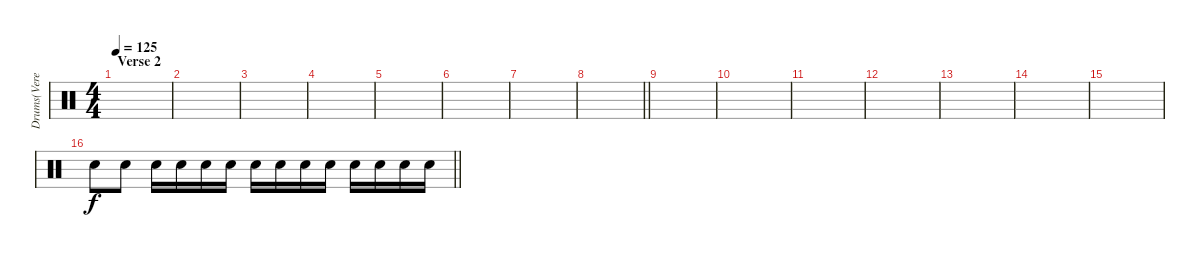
\track ("Drums(Vereinfacht) - Daniel" "Drums(Vere") {instrument percussion}
\staff {score}
\articulation defaults
\ts (4 4)
\section ("" "Verse 2")
\tempo 125
\clef neutral
\ks c
|
|
|
|
|
|
|
\barLineRight lightlight
|
|
|
|
|
|
|
|
\barLineRight lightlight "Snare (hit) 2".8 "Snare (hit) 2".8 "Snare (hit) 2".16 "Snare (hit) 2".16 "Snare (hit) 2".16 "Snare (hit) 2".16 "Snare (hit) 2".16 "Snare (hit) 2".16 "Snare (hit) 2".16 "Snare (hit) 2".16 "Snare (hit) 2".16 "Snare (hit) 2".16 "Snare (hit) 2".16 "Snare (hit) 2".16
